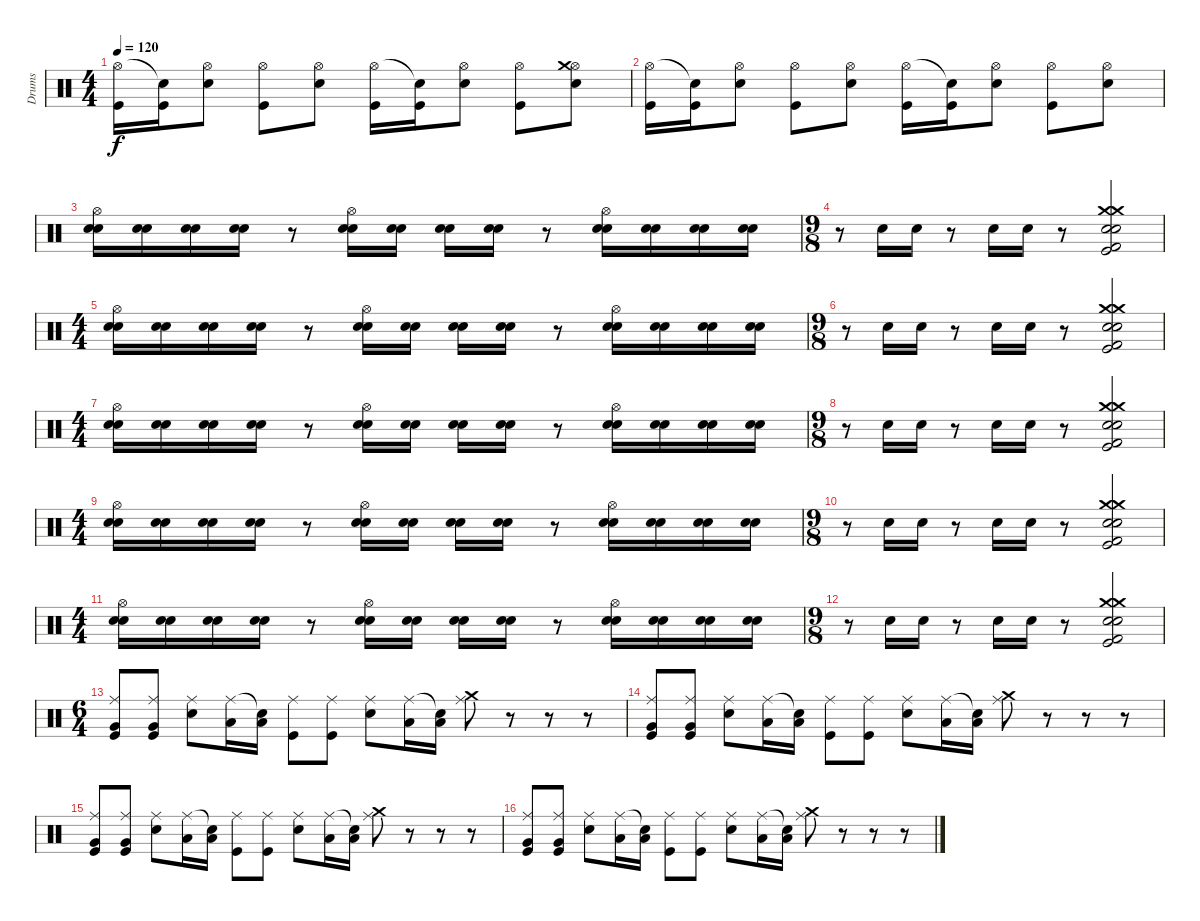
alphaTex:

\track ("Drums" "Drums") {instrument percussion}
\staff {score}
\articulation defaults
\ts (4 4)
\tempo 120
\clef neutral
\ks c
("Hi-Hat (open)" "Kick (hit)").16{dy f} ("Snare (hit)"{t} "Kick (hit)").16 ("Hi-Hat (open)" "Electric Snare (hit)").8 ("Hi-Hat (open)" "Kick (hit)").8 ("Hi-Hat (open)" "Electric Snare (hit)").8 ("Hi-Hat (open)" "Kick (hit)").16 ("Snare (hit)"{t} "Kick (hit)").16 ("Hi-Hat (open)" "Electric Snare (hit)").8 ("Hi-Hat (open)" "Kick (hit)").8 ("Hi-Hat (open)" "Crash medium (hit)" "Electric Snare (hit)").8 |
("Hi-Hat (open)" "Kick (hit)").16 ("Snare (hit)"{t} "Kick (hit)").16 ("Hi-Hat (open)" "Electric Snare (hit)").8 ("Hi-Hat (open)" "Kick (hit)").8 ("Hi-Hat (open)" "Electric Snare (hit)").8 ("Hi-Hat (open)" "Kick (hit)").16 ("Snare (hit)"{t} "Kick (hit)").16 ("Hi-Hat (open)" "Electric Snare (hit)").8 ("Hi-Hat (open)" "Kick (hit)").8 ("Hi-Hat (open)" "Electric Snare (hit)").8 |
("Hi-Hat (open)" "Snare (hit) 2" "Electric Snare (hit)").16 ("Snare (hit) 2" "Electric Snare (hit)").16 ("Snare (hit) 2" "Electric Snare (hit)").16 ("Snare (hit) 2" "Electric Snare (hit)").16 r.8 ("Hi-Hat (open)" "Snare (hit) 2" "Electric Snare (hit)").16 ("Snare (hit) 2" "Electric Snare (hit)").16 ("Snare (hit) 2" "Electric Snare (hit)").16 ("Snare (hit) 2" "Electric Snare (hit)").16 r.8 ("Hi-Hat (open)" "Snare (hit) 2" "Electric Snare (hit)").16 ("Snare (hit) 2" "Electric Snare (hit)").16 ("Snare (hit) 2" "Electric Snare (hit)").16 ("Snare (hit) 2" "Electric Snare (hit)").16 |
\ts (9 8)
r.8 "Electric Snare (hit)".16 "Electric Snare (hit)".16 r.8 "Electric Snare (hit)".16 "Electric Snare (hit)".16 r.8 ("Crash medium (hit)" "Crash medium (hit)" "Kick (hit) 2" "Kick (hit)" "Snare (hit) 2" "Electric Snare (hit)").2 |
\ts (4 4)
("Hi-Hat (open)" "Snare (hit) 2" "Electric Snare (hit)").16 ("Snare (hit) 2" "Electric Snare (hit)").16 ("Snare (hit) 2" "Electric Snare (hit)").16 ("Snare (hit) 2" "Electric Snare (hit)").16 r.8 ("Hi-Hat (open)" "Snare (hit) 2" "Electric Snare (hit)").16 ("Snare (hit) 2" "Electric Snare (hit)").16 ("Snare (hit) 2" "Electric Snare (hit)").16 ("Snare (hit) 2" "Electric Snare (hit)").16 r.8 ("Hi-Hat (open)" "Snare (hit) 2" "Electric Snare (hit)").16 ("Snare (hit) 2" "Electric Snare (hit)").16 ("Snare (hit) 2" "Electric Snare (hit)").16 ("Snare (hit) 2" "Electric Snare (hit)").16 |
\ts (9 8)
r.8 "Electric Snare (hit)".16 "Electric Snare (hit)".16 r.8 "Electric Snare (hit)".16 "Electric Snare (hit)".16 r.8 ("Crash medium (hit)" "Crash medium (hit)" "Kick (hit) 2" "Kick (hit)" "Snare (hit) 2" "Electric Snare (hit)").2 |
\ts (4 4)
("Hi-Hat (open)" "Snare (hit) 2" "Electric Snare (hit)").16 ("Snare (hit) 2" "Electric Snare (hit)").16 ("Snare (hit) 2" "Electric Snare (hit)").16 ("Snare (hit) 2" "Electric Snare (hit)").16 r.8 ("Hi-Hat (open)" "Snare (hit) 2" "Electric Snare (hit)").16 ("Snare (hit) 2" "Electric Snare (hit)").16 ("Snare (hit) 2" "Electric Snare (hit)").16 ("Snare (hit) 2" "Electric Snare (hit)").16 r.8 ("Hi-Hat (open)" "Snare (hit) 2" "Electric Snare (hit)").16 ("Snare (hit) 2" "Electric Snare (hit)").16 ("Snare (hit) 2" "Electric Snare (hit)").16 ("Snare (hit) 2" "Electric Snare (hit)").16 |
\ts (9 8)
r.8 "Electric Snare (hit)".16 "Electric Snare (hit)".16 r.8 "Electric Snare (hit)".16 "Electric Snare (hit)".16 r.8 ("Crash medium (hit)" "Crash medium (hit)" "Kick (hit) 2" "Kick (hit)" "Snare (hit) 2" "Electric Snare (hit)").2 |
\ts (4 4)
("Hi-Hat (open)" "Snare (hit) 2" "Electric Snare (hit)").16 ("Snare (hit) 2" "Electric Snare (hit)").16 ("Snare (hit) 2" "Electric Snare (hit)").16 ("Snare (hit) 2" "Electric Snare (hit)").16 r.8 ("Hi-Hat (open)" "Snare (hit) 2" "Electric Snare (hit)").16 ("Snare (hit) 2" "Electric Snare (hit)").16 ("Snare (hit) 2" "Electric Snare (hit)").16 ("Snare (hit) 2" "Electric Snare (hit)").16 r.8 ("Hi-Hat (open)" "Snare (hit) 2" "Electric Snare (hit)").16 ("Snare (hit) 2" "Electric Snare (hit)").16 ("Snare (hit) 2" "Electric Snare (hit)").16 ("Snare (hit) 2" "Electric Snare (hit)").16 |
\ts (9 8)
r.8 "Electric Snare (hit)".16 "Electric Snare (hit)".16 r.8 "Electric Snare (hit)".16 "Electric Snare (hit)".16 r.8 ("Crash medium (hit)" "Crash medium (hit)" "Kick (hit) 2" "Kick (hit)" "Snare (hit) 2" "Electric Snare (hit)").2 |
\ts (4 4)
("Hi-Hat (open)" "Snare (hit) 2" "Electric Snare (hit)").16 ("Snare (hit) 2" "Electric Snare (hit)").16 ("Snare (hit) 2" "Electric Snare (hit)").16 ("Snare (hit) 2" "Electric Snare (hit)").16 r.8 ("Hi-Hat (open)" "Snare (hit) 2" "Electric Snare (hit)").16 ("Snare (hit) 2" "Electric Snare (hit)").16 ("Snare (hit) 2" "Electric Snare (hit)").16 ("Snare (hit) 2" "Electric Snare (hit)").16 r.8 ("Hi-Hat (open)" "Snare (hit) 2" "Electric Snare (hit)").16 ("Snare (hit) 2" "Electric Snare (hit)").16 ("Snare (hit) 2" "Electric Snare (hit)").16 ("Snare (hit) 2" "Electric Snare (hit)").16 |
\ts (9 8)
r.8 "Electric Snare (hit)".16 "Electric Snare (hit)".16 r.8 "Electric Snare (hit)".16 "Electric Snare (hit)".16 r.8 ("Crash medium (hit)" "Crash medium (hit)" "Kick (hit) 2" "Kick (hit)" "Snare (hit) 2" "Electric Snare (hit)").2 |
\ts (6 4)
("Ride (middle)" "Very Low Tom (hit)" "Kick (hit)").8 ("Ride (middle)" "Very Low Tom (hit)" "Kick (hit)").8 ("Ride (middle)" "Electric Snare (hit)").8 ("Ride (middle)" "Low Floor Tom (hit)").16 ("Snare (hit)"{t} "Low Floor Tom (hit)").16 ("Ride (middle)" "Kick (hit)").8 ("Ride (middle)" "Kick (hit)").8 ("Ride (middle)" "Electric Snare (hit)").8 ("Ride (middle)" "Low Floor Tom (hit)").16 ("Snare (hit)"{t} "Low Floor Tom (hit)").16 ("Ride (middle)" "Crash medium (hit)").8 r.8 r.8 r.8 |
("Ride (middle)" "Very Low Tom (hit)" "Kick (hit)").8 ("Ride (middle)" "Very Low Tom (hit)" "Kick (hit)").8 ("Ride (middle)" "Electric Snare (hit)").8 ("Ride (middle)" "Low Floor Tom (hit)").16 ("Snare (hit)"{t} "Low Floor Tom (hit)").16 ("Ride (middle)" "Kick (hit)").8 ("Ride (middle)" "Kick (hit)").8 ("Ride (middle)" "Electric Snare (hit)").8 ("Ride (middle)" "Low Floor Tom (hit)").16 ("Snare (hit)"{t} "Low Floor Tom (hit)").16 ("Ride (middle)" "Crash medium (hit)").8 r.8 r.8 r.8 |
("Ride (middle)" "Very Low Tom (hit)" "Kick (hit)").8 ("Ride (middle)" "Very Low Tom (hit)" "Kick (hit)").8 ("Ride (middle)" "Electric Snare (hit)").8 ("Ride (middle)" "Low Floor Tom (hit)").16 ("Snare (hit)"{t} "Low Floor Tom (hit)").16 ("Ride (middle)" "Kick (hit)").8 ("Ride (middle)" "Kick (hit)").8 ("Ride (middle)" "Electric Snare (hit)").8 ("Ride (middle)" "Low Floor Tom (hit)").16 ("Snare (hit)"{t} "Low Floor Tom (hit)").16 ("Ride (middle)" "Crash medium (hit)").8 r.8 r.8 r.8 |
("Ride (middle)" "Very Low Tom (hit)" "Kick (hit)").8 ("Ride (middle)" "Very Low Tom (hit)" "Kick (hit)").8 ("Ride (middle)" "Electric Snare (hit)").8 ("Ride (middle)" "Low Floor Tom (hit)").16 ("Snare (hit)"{t} "Low Floor Tom (hit)").16 ("Ride (middle)" "Kick (hit)").8 ("Ride (middle)" "Kick (hit)").8 ("Ride (middle)" "Electric Snare (hit)").8 ("Ride (middle)" "Low Floor Tom (hit)").16 ("Snare (hit)"{t} "Low Floor Tom (hit)").16 ("Ride (middle)" "Crash medium (hit)").8 r.8 r.8 r.8
